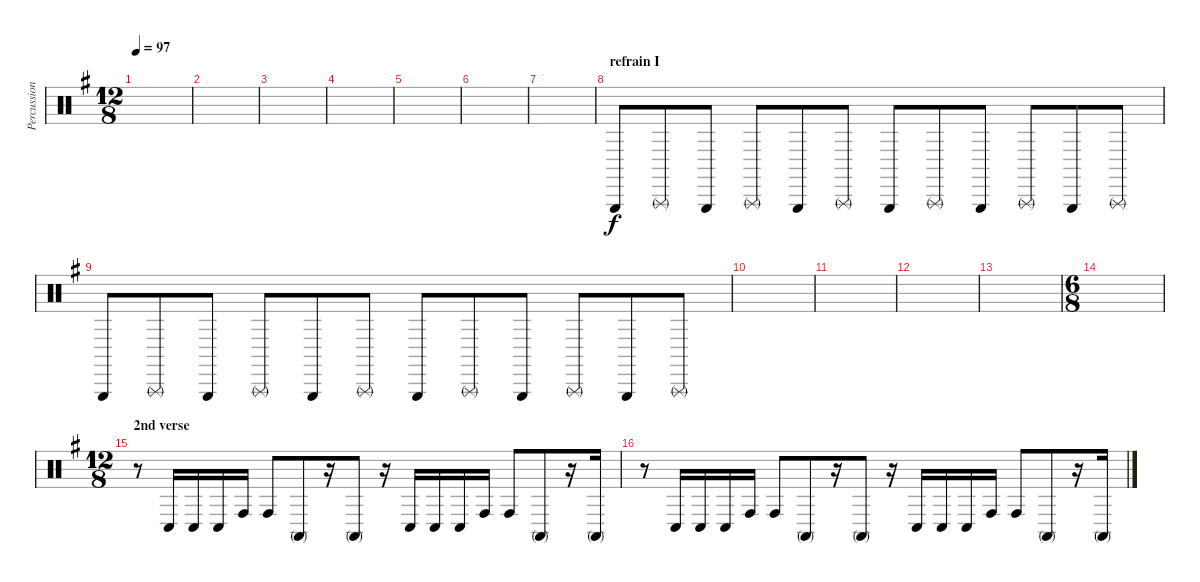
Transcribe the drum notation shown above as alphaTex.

\track ("Percussions" "Percussion") {instrument percussion}
\staff {score}
\articulation defaults
\ts (12 8)
\tempo 97
\clef neutral
\ks g
|
|
|
|
|
|
|
\section ("" "refrain I")
"Triangle (hit)".8 "Triangle (rnute)".8 "Triangle (hit)".8 "Triangle (rnute)".8 "Triangle (hit)".8 "Triangle (rnute)".8 "Triangle (hit)".8 "Triangle (rnute)".8 "Triangle (hit)".8 "Triangle (rnute)".8 "Triangle (hit)".8 "Triangle (rnute)".8 |
"Triangle (hit)".8 "Triangle (rnute)".8 "Triangle (hit)".8 "Triangle (rnute)".8 "Triangle (hit)".8 "Triangle (rnute)".8 "Triangle (hit)".8 "Triangle (rnute)".8 "Triangle (hit)".8 "Triangle (rnute)".8 "Triangle (hit)".8 "Triangle (rnute)".8 |
|
|
|
|
\ts (6 8)
|
\ts (12 8)
\section ("" "2nd verse")
r.8 "Conga low (hit)".16 "Conga low (hit)".16 "Conga low (hit)".16 "Conga high (hit)".16 "Conga high (hit)".8 "Conga high (mute)".8 r.16 "Conga high (mute)".8 r.16 "Conga low (hit)".16 "Conga low (hit)".16 "Conga low (hit)".16 "Conga high (hit)".16 "Conga high (hit)".8 "Conga high (mute)".8 r.16 "Conga high (mute)".16 |
r.8 "Conga low (hit)".16 "Conga low (hit)".16 "Conga low (hit)".16 "Conga high (hit)".16 "Conga high (hit)".8 "Conga high (mute)".8 r.16 "Conga high (mute)".8 r.16 "Conga low (hit)".16 "Conga low (hit)".16 "Conga low (hit)".16 "Conga high (hit)".16 "Conga high (hit)".8 "Conga high (mute)".8 r.16 "Conga high (mute)".16
